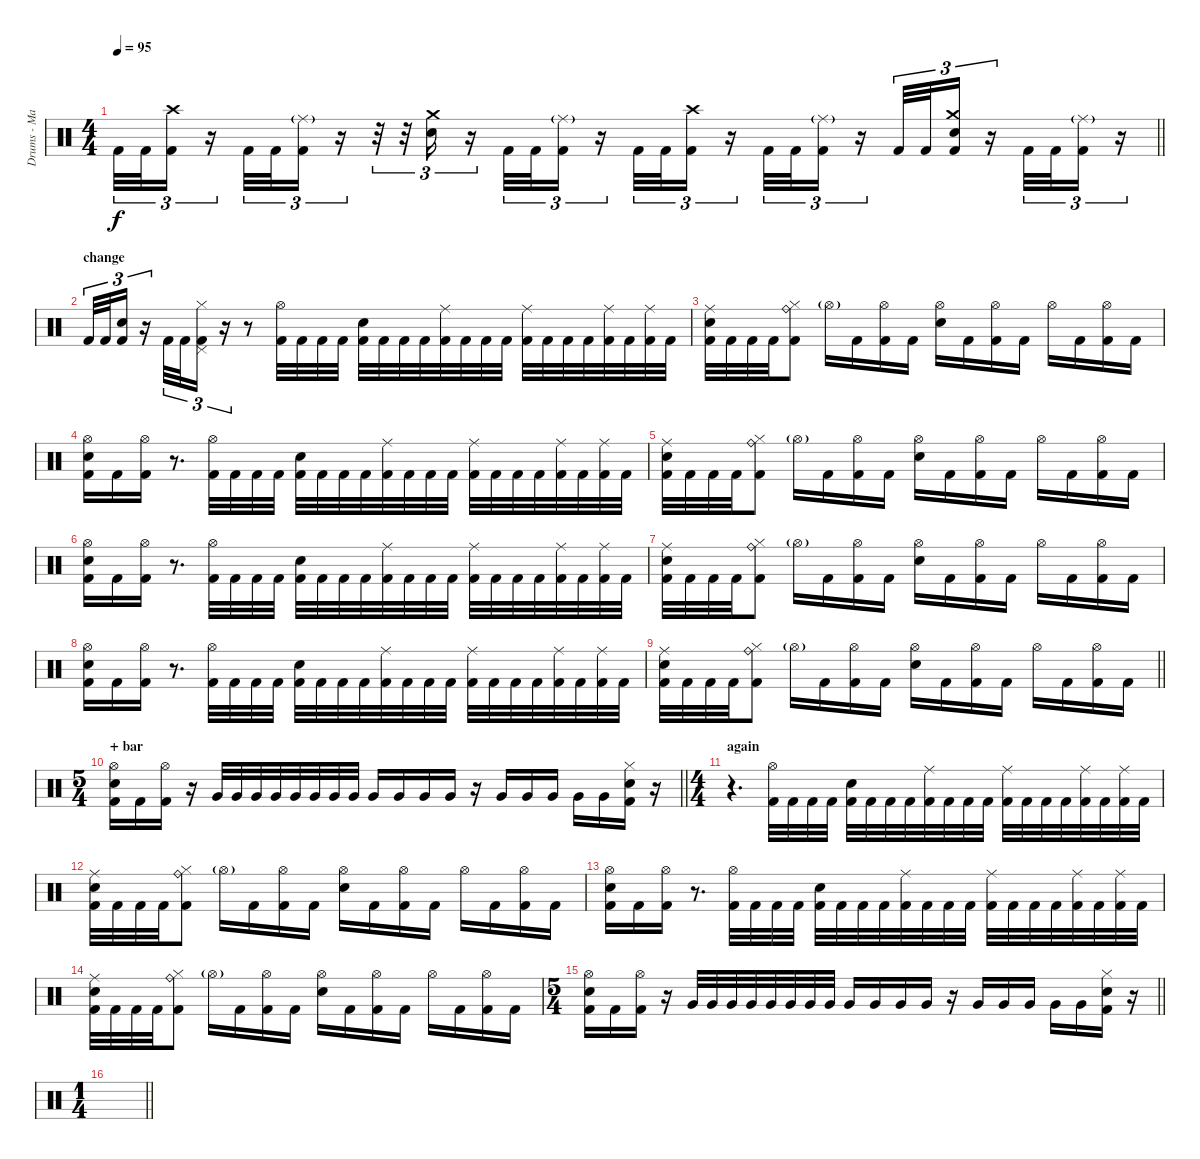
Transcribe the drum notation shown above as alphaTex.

\track ("Drums - Mario Duplantier" "Drums - Ma") {instrument percussion}
\staff {score}
\articulation defaults
\ts (4 4)
\tempo 95
\clef neutral
\barLineRight lightlight
\ks c "Kick (hit) 2".32{tu (3 2) dy f} "Kick (hit) 2".32{tu (3 2)}
("Crash high (hit)" "Kick (hit) 2").16{tu (3 2)} r.16{tu (3 2)} "Kick (hit) 2".32{tu (3 2)} "Kick (hit) 2".32{tu (3 2)} ("Ride (middle)"{g} "Kick (hit) 2").16{tu (3 2)} r.16{tu (3 2)} r.32{tu (3 2)} r.32{tu (3 2)} ("Crash medium (hit)" "Electric Snare (hit)").16{tu (3 2)} r.16{tu (3 2)} "Kick (hit) 2".32{tu (3 2)} "Kick (hit) 2".32{tu (3 2)} ("Ride (middle)"{g} "Kick (hit) 2").16{tu (3 2)} r.16{tu (3 2)} "Kick (hit) 2".32{tu (3 2)} "Kick (hit) 2".32{tu (3 2)} ("Crash high (hit)" "Kick (hit) 2").16{tu (3 2)} r.16{tu (3 2)} "Kick (hit) 2".32{tu (3 2)} "Kick (hit) 2".32{tu (3 2)} ("Ride (middle)"{g} "Kick (hit) 2").16{tu (3 2)} r.16{tu (3 2)} "Kick (hit) 2".32{tu (3 2)} "Kick (hit) 2".32{tu (3 2)} ("Crash medium (hit)" "Electric Snare (hit)" "Kick (hit) 2").16{tu (3 2)} r.16{tu (3 2)} "Kick (hit) 2".32{tu (3 2)} "Kick (hit) 2".32{tu (3 2)} ("Ride (middle)"{g} "Kick (hit) 2").16{tu (3 2)} r.16{tu (3 2)} |
\section ("" "change")
"Kick (hit) 2".32{tu (3 2)} "Kick (hit) 2".32{tu (3 2)} ("Electric Snare (hit)" "Kick (hit) 2").16{tu (3 2)} r.16{tu (3 2)} "Kick (hit) 2".32{tu (3 2)} "Kick (hit) 2".32{tu (3 2)} ("Pedal Hi-Hat (hit)" "Hi-Hat (closed)" "Kick (hit) 2").16{tu (3 2)} r.16{tu (3 2)} r.8 ("Hi-Hat (open)" "Kick (hit) 2").32 "Kick (hit) 2".32 "Kick (hit) 2".32 "Kick (hit) 2".32 ("Electric Snare (hit)" "Kick (hit) 2").32 "Kick (hit) 2".32 "Kick (hit) 2".32 "Kick (hit) 2".32 ("Ride (middle)" "Kick (hit) 2").32 "Kick (hit) 2".32 "Kick (hit) 2".32 "Kick (hit) 2".32 ("Ride (middle)" "Kick (hit) 2").32 "Kick (hit) 2".32 "Kick (hit) 2".32 "Kick (hit) 2".32 ("Ride (middle)" "Kick (hit) 2").32 "Kick (hit) 2".32 ("Ride (middle)" "Kick (hit) 2").32 "Kick (hit) 2".32 |
("Ride (middle)" "Electric Snare (hit)" "Kick (hit) 2").32 "Kick (hit) 2".32 "Kick (hit) 2".32 "Kick (hit) 2".32 ("Ride (bell)" "Hi-Hat (closed)" "Kick (hit) 2").8 "Hi-Hat (open)"{g}.16 "Kick (hit) 2".16 ("Hi-Hat (open)" "Kick (hit) 2").16 "Kick (hit) 2".16 ("Hi-Hat (open)" "Electric Snare (hit)").16 "Kick (hit) 2".16 ("Hi-Hat (open)" "Kick (hit) 2").16 "Kick (hit) 2".16 "Hi-Hat (open)".16 "Kick (hit) 2".16 ("Hi-Hat (open)" "Kick (hit) 2").16 "Kick (hit) 2".16 |
("Hi-Hat (open)" "Electric Snare (hit)" "Kick (hit) 2").16 "Kick (hit) 2".16 ("Hi-Hat (open)" "Kick (hit) 2").16 r.8{d} ("Hi-Hat (open)" "Kick (hit) 2").32 "Kick (hit) 2".32 "Kick (hit) 2".32 "Kick (hit) 2".32 ("Electric Snare (hit)" "Kick (hit) 2").32 "Kick (hit) 2".32 "Kick (hit) 2".32 "Kick (hit) 2".32 ("Ride (middle)" "Kick (hit) 2").32 "Kick (hit) 2".32 "Kick (hit) 2".32 "Kick (hit) 2".32 ("Ride (middle)" "Kick (hit) 2").32 "Kick (hit) 2".32 "Kick (hit) 2".32 "Kick (hit) 2".32 ("Ride (middle)" "Kick (hit) 2").32 "Kick (hit) 2".32 ("Ride (middle)" "Kick (hit) 2").32 "Kick (hit) 2".32 |
("Ride (middle)" "Electric Snare (hit)" "Kick (hit) 2").32 "Kick (hit) 2".32 "Kick (hit) 2".32 "Kick (hit) 2".32 ("Ride (bell)" "Hi-Hat (closed)" "Kick (hit) 2").8 "Hi-Hat (open)"{g}.16 "Kick (hit) 2".16 ("Hi-Hat (open)" "Kick (hit) 2").16 "Kick (hit) 2".16 ("Hi-Hat (open)" "Electric Snare (hit)").16 "Kick (hit) 2".16 ("Hi-Hat (open)" "Kick (hit) 2").16 "Kick (hit) 2".16 "Hi-Hat (open)".16 "Kick (hit) 2".16 ("Hi-Hat (open)" "Kick (hit) 2").16 "Kick (hit) 2".16 |
("Hi-Hat (open)" "Electric Snare (hit)" "Kick (hit) 2").16 "Kick (hit) 2".16 ("Hi-Hat (open)" "Kick (hit) 2").16 r.8{d} ("Hi-Hat (open)" "Kick (hit) 2").32 "Kick (hit) 2".32 "Kick (hit) 2".32 "Kick (hit) 2".32 ("Electric Snare (hit)" "Kick (hit) 2").32 "Kick (hit) 2".32 "Kick (hit) 2".32 "Kick (hit) 2".32 ("Ride (middle)" "Kick (hit) 2").32 "Kick (hit) 2".32 "Kick (hit) 2".32 "Kick (hit) 2".32 ("Ride (middle)" "Kick (hit) 2").32 "Kick (hit) 2".32 "Kick (hit) 2".32 "Kick (hit) 2".32 ("Ride (middle)" "Kick (hit) 2").32 "Kick (hit) 2".32 ("Ride (middle)" "Kick (hit) 2").32 "Kick (hit) 2".32 |
("Ride (middle)" "Electric Snare (hit)" "Kick (hit) 2").32 "Kick (hit) 2".32 "Kick (hit) 2".32 "Kick (hit) 2".32 ("Ride (bell)" "Hi-Hat (closed)" "Kick (hit) 2").8 "Hi-Hat (open)"{g}.16 "Kick (hit) 2".16 ("Hi-Hat (open)" "Kick (hit) 2").16 "Kick (hit) 2".16 ("Hi-Hat (open)" "Electric Snare (hit)").16 "Kick (hit) 2".16 ("Hi-Hat (open)" "Kick (hit) 2").16 "Kick (hit) 2".16 "Hi-Hat (open)".16 "Kick (hit) 2".16 ("Hi-Hat (open)" "Kick (hit) 2").16 "Kick (hit) 2".16 |
("Hi-Hat (open)" "Electric Snare (hit)" "Kick (hit) 2").16 "Kick (hit) 2".16 ("Hi-Hat (open)" "Kick (hit) 2").16 r.8{d} ("Hi-Hat (open)" "Kick (hit) 2").32 "Kick (hit) 2".32 "Kick (hit) 2".32 "Kick (hit) 2".32 ("Electric Snare (hit)" "Kick (hit) 2").32 "Kick (hit) 2".32 "Kick (hit) 2".32 "Kick (hit) 2".32 ("Ride (middle)" "Kick (hit) 2").32 "Kick (hit) 2".32 "Kick (hit) 2".32 "Kick (hit) 2".32 ("Ride (middle)" "Kick (hit) 2").32 "Kick (hit) 2".32 "Kick (hit) 2".32 "Kick (hit) 2".32 ("Ride (middle)" "Kick (hit) 2").32 "Kick (hit) 2".32 ("Ride (middle)" "Kick (hit) 2").32 "Kick (hit) 2".32 |
\barLineRight lightlight
("Ride (middle)" "Electric Snare (hit)" "Kick (hit) 2").32 "Kick (hit) 2".32 "Kick (hit) 2".32 "Kick (hit) 2".32 ("Ride (bell)" "Hi-Hat (closed)" "Kick (hit) 2").8 "Hi-Hat (open)"{g}.16 "Kick (hit) 2".16 ("Hi-Hat (open)" "Kick (hit) 2").16 "Kick (hit) 2".16 ("Hi-Hat (open)" "Electric Snare (hit)").16 "Kick (hit) 2".16 ("Hi-Hat (open)" "Kick (hit) 2").16 "Kick (hit) 2".16 "Hi-Hat (open)".16 "Kick (hit) 2".16 ("Hi-Hat (open)" "Kick (hit) 2").16 "Kick (hit) 2".16 |
\ts (5 4)
\section ("" "+ bar")
\barLineRight lightlight
("Hi-Hat (open)" "Electric Snare (hit)" "Kick (hit) 2").16 "Kick (hit) 2".16 ("Hi-Hat (open)" "Kick (hit) 2").16 r.16 "Very Low Tom (hit)".32 "Very Low Tom (hit)".32 "Very Low Tom (hit)".32 "Very Low Tom (hit)".32 "Very Low Tom (hit)".32 "Very Low Tom (hit)".32 "Very Low Tom (hit)".32 "Very Low Tom (hit)".32 "Very Low Tom (hit)".16 "Very Low Tom (hit)".16 "Very Low Tom (hit)".16 "Very Low Tom (hit)".16 r.16 "Very Low Tom (hit)".16 "Very Low Tom (hit)".16 "Very Low Tom (hit)".16 "Very Low Tom (hit)".16 "Very Low Tom (hit)".16 ("Hi-Hat (closed)" "Electric Snare (hit)" "Kick (hit) 2").16 r.16 |
\ts (4 4)
\section ("" "again")
r.4{d} ("Hi-Hat (open)" "Kick (hit) 2").32 "Kick (hit) 2".32 "Kick (hit) 2".32 "Kick (hit) 2".32 ("Electric Snare (hit)" "Kick (hit) 2").32 "Kick (hit) 2".32 "Kick (hit) 2".32 "Kick (hit) 2".32 ("Ride (middle)" "Kick (hit) 2").32 "Kick (hit) 2".32 "Kick (hit) 2".32 "Kick (hit) 2".32 ("Ride (middle)" "Kick (hit) 2").32 "Kick (hit) 2".32 "Kick (hit) 2".32 "Kick (hit) 2".32 ("Ride (middle)" "Kick (hit) 2").32 "Kick (hit) 2".32 ("Ride (middle)" "Kick (hit) 2").32 "Kick (hit) 2".32 |
("Ride (middle)" "Electric Snare (hit)" "Kick (hit) 2").32 "Kick (hit) 2".32 "Kick (hit) 2".32 "Kick (hit) 2".32 ("Ride (bell)" "Hi-Hat (closed)" "Kick (hit) 2").8 "Hi-Hat (open)"{g}.16 "Kick (hit) 2".16 ("Hi-Hat (open)" "Kick (hit) 2").16 "Kick (hit) 2".16 ("Hi-Hat (open)" "Electric Snare (hit)").16 "Kick (hit) 2".16 ("Hi-Hat (open)" "Kick (hit) 2").16 "Kick (hit) 2".16 "Hi-Hat (open)".16 "Kick (hit) 2".16 ("Hi-Hat (open)" "Kick (hit) 2").16 "Kick (hit) 2".16 |
("Hi-Hat (open)" "Electric Snare (hit)" "Kick (hit) 2").16 "Kick (hit) 2".16 ("Hi-Hat (open)" "Kick (hit) 2").16 r.8{d} ("Hi-Hat (open)" "Kick (hit) 2").32 "Kick (hit) 2".32 "Kick (hit) 2".32 "Kick (hit) 2".32 ("Electric Snare (hit)" "Kick (hit) 2").32 "Kick (hit) 2".32 "Kick (hit) 2".32 "Kick (hit) 2".32 ("Ride (middle)" "Kick (hit) 2").32 "Kick (hit) 2".32 "Kick (hit) 2".32 "Kick (hit) 2".32 ("Ride (middle)" "Kick (hit) 2").32 "Kick (hit) 2".32 "Kick (hit) 2".32 "Kick (hit) 2".32 ("Ride (middle)" "Kick (hit) 2").32 "Kick (hit) 2".32 ("Ride (middle)" "Kick (hit) 2").32 "Kick (hit) 2".32 |
("Ride (middle)" "Electric Snare (hit)" "Kick (hit) 2").32 "Kick (hit) 2".32 "Kick (hit) 2".32 "Kick (hit) 2".32 ("Ride (bell)" "Hi-Hat (closed)" "Kick (hit) 2").8 "Hi-Hat (open)"{g}.16 "Kick (hit) 2".16 ("Hi-Hat (open)" "Kick (hit) 2").16 "Kick (hit) 2".16 ("Hi-Hat (open)" "Electric Snare (hit)").16 "Kick (hit) 2".16 ("Hi-Hat (open)" "Kick (hit) 2").16 "Kick (hit) 2".16 "Hi-Hat (open)".16 "Kick (hit) 2".16 ("Hi-Hat (open)" "Kick (hit) 2").16 "Kick (hit) 2".16 |
\ts (5 4)
\barLineRight lightlight
("Hi-Hat (open)" "Electric Snare (hit)" "Kick (hit) 2").16 "Kick (hit) 2".16 ("Hi-Hat (open)" "Kick (hit) 2").16 r.16 "Very Low Tom (hit)".32 "Very Low Tom (hit)".32 "Very Low Tom (hit)".32 "Very Low Tom (hit)".32 "Very Low Tom (hit)".32 "Very Low Tom (hit)".32 "Very Low Tom (hit)".32 "Very Low Tom (hit)".32 "Very Low Tom (hit)".16 "Very Low Tom (hit)".16 "Very Low Tom (hit)".16 "Very Low Tom (hit)".16 r.16 "Very Low Tom (hit)".16 "Very Low Tom (hit)".16 "Very Low Tom (hit)".16 "Very Low Tom (hit)".16 "Very Low Tom (hit)".16 ("Hi-Hat (closed)" "Electric Snare (hit)" "Kick (hit) 2").16 r.16 |
\ts (1 4)
\barLineRight lightlight
